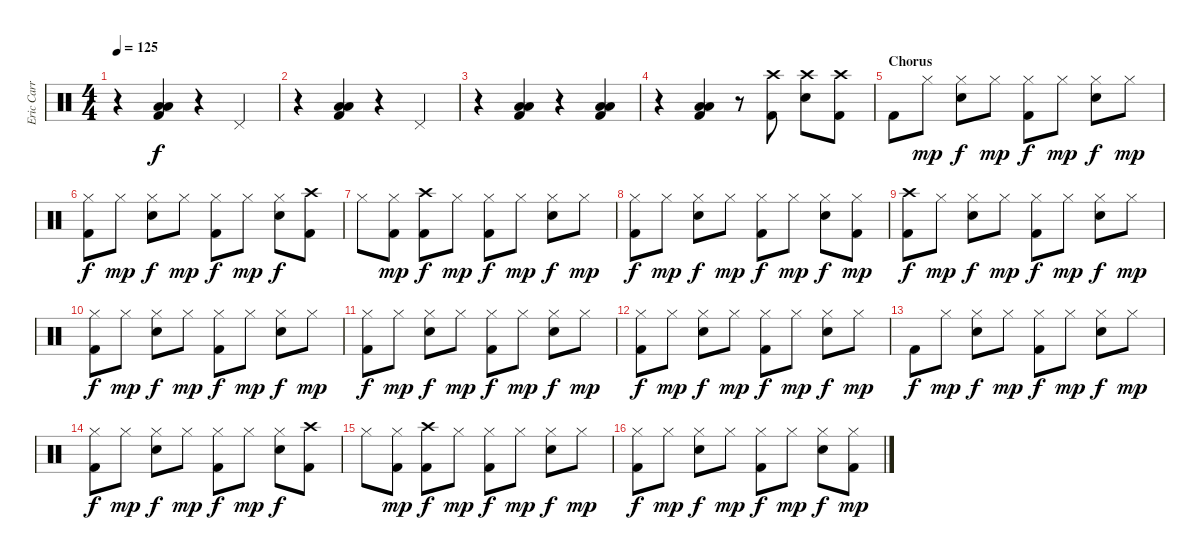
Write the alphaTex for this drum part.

\track ("Eric Carr" "Eric Carr") {instrument percussion}
\staff {score}
\articulation defaults
\ts (4 4)
\tempo 125
\clef neutral
\ks c
r.4{dy f} ("Low Floor Tom (hit)" "Low Floor Tom (hit)" "Kick (hit) 2").4 r.4 "Pedal Hi-Hat (hit)".4 |
r.4 ("Low Floor Tom (hit)" "Low Floor Tom (hit)" "Kick (hit) 2").4 r.4 "Pedal Hi-Hat (hit)".4 |
r.4 ("Low Floor Tom (hit)" "Low Floor Tom (hit)" "Kick (hit) 2").4 r.4 ("Low Floor Tom (hit)" "Low Floor Tom (hit)" "Kick (hit) 2").4 |
r.4 ("Low Floor Tom (hit)" "Low Floor Tom (hit)" "Kick (hit) 2").4 r.8 ("Crash high (hit)" "Kick (hit) 2").8 ("Crash high (hit)" "Snare (hit) 2").8 ("Crash high (hit)" "Kick (hit) 2").8 |
\section ("" "Chorus")
"Kick (hit) 2".8 "Hi-Hat (closed)".8{dy mp} ("Hi-Hat (closed)" "Snare (hit) 2").8{dy f} "Hi-Hat (closed)".8{dy mp} ("Hi-Hat (closed)" "Kick (hit) 2").8{dy f} "Hi-Hat (closed)".8{dy mp} ("Hi-Hat (closed)" "Snare (hit) 2").8{dy f} "Hi-Hat (closed)".8{dy mp} |
("Hi-Hat (closed)" "Kick (hit) 2").8{dy f} "Hi-Hat (closed)".8{dy mp} ("Hi-Hat (closed)" "Snare (hit) 2").8{dy f} "Hi-Hat (closed)".8{dy mp} ("Hi-Hat (closed)" "Kick (hit) 2").8{dy f} "Hi-Hat (closed)".8{dy mp} ("Hi-Hat (closed)" "Snare (hit) 2").8{dy f} ("Crash high (hit)" "Kick (hit) 2").8 |
"Hi-Hat (closed)".8 ("Hi-Hat (closed)" "Kick (hit) 2").8{dy mp} ("Crash high (hit)" "Kick (hit) 2").8{dy f} "Hi-Hat (closed)".8{dy mp} ("Hi-Hat (closed)" "Kick (hit) 2").8{dy f} "Hi-Hat (closed)".8{dy mp} ("Hi-Hat (closed)" "Snare (hit) 2").8{dy f} "Hi-Hat (closed)".8{dy mp} |
("Hi-Hat (closed)" "Kick (hit) 2").8{dy f} "Hi-Hat (closed)".8{dy mp} ("Hi-Hat (closed)" "Snare (hit) 2").8{dy f} "Hi-Hat (closed)".8{dy mp} ("Hi-Hat (closed)" "Kick (hit) 2").8{dy f} "Hi-Hat (closed)".8{dy mp} ("Hi-Hat (closed)" "Snare (hit) 2").8{dy f} ("Hi-Hat (closed)" "Kick (hit) 2").8{dy mp} |
("Crash high (hit)" "Kick (hit) 2").8{dy f} "Hi-Hat (closed)".8{dy mp} ("Hi-Hat (closed)" "Snare (hit) 2").8{dy f} "Hi-Hat (closed)".8{dy mp} ("Hi-Hat (closed)" "Kick (hit) 2").8{dy f} "Hi-Hat (closed)".8{dy mp} ("Hi-Hat (closed)" "Snare (hit) 2").8{dy f} "Hi-Hat (closed)".8{dy mp} |
("Hi-Hat (closed)" "Kick (hit) 2").8{dy f} "Hi-Hat (closed)".8{dy mp} ("Hi-Hat (closed)" "Snare (hit) 2").8{dy f} "Hi-Hat (closed)".8{dy mp} ("Hi-Hat (closed)" "Kick (hit) 2").8{dy f} "Hi-Hat (closed)".8{dy mp} ("Hi-Hat (closed)" "Snare (hit) 2").8{dy f} "Hi-Hat (closed)".8{dy mp} |
("Hi-Hat (closed)" "Kick (hit) 2").8{dy f} "Hi-Hat (closed)".8{dy mp} ("Hi-Hat (closed)" "Snare (hit) 2").8{dy f} "Hi-Hat (closed)".8{dy mp} ("Hi-Hat (closed)" "Kick (hit) 2").8{dy f} "Hi-Hat (closed)".8{dy mp} ("Hi-Hat (closed)" "Snare (hit) 2").8{dy f} "Hi-Hat (closed)".8{dy mp} |
("Hi-Hat (closed)" "Kick (hit) 2").8{dy f} "Hi-Hat (closed)".8{dy mp} ("Hi-Hat (closed)" "Snare (hit) 2").8{dy f} "Hi-Hat (closed)".8{dy mp} ("Hi-Hat (closed)" "Kick (hit) 2").8{dy f} "Hi-Hat (closed)".8{dy mp} ("Hi-Hat (closed)" "Snare (hit) 2").8{dy f} "Hi-Hat (closed)".8{dy mp} |
"Kick (hit) 2".8{dy f} "Hi-Hat (closed)".8{dy mp} ("Hi-Hat (closed)" "Snare (hit) 2").8{dy f} "Hi-Hat (closed)".8{dy mp} ("Hi-Hat (closed)" "Kick (hit) 2").8{dy f} "Hi-Hat (closed)".8{dy mp} ("Hi-Hat (closed)" "Snare (hit) 2").8{dy f} "Hi-Hat (closed)".8{dy mp} |
("Hi-Hat (closed)" "Kick (hit) 2").8{dy f} "Hi-Hat (closed)".8{dy mp} ("Hi-Hat (closed)" "Snare (hit) 2").8{dy f} "Hi-Hat (closed)".8{dy mp} ("Hi-Hat (closed)" "Kick (hit) 2").8{dy f} "Hi-Hat (closed)".8{dy mp} ("Hi-Hat (closed)" "Snare (hit) 2").8{dy f} ("Crash high (hit)" "Kick (hit) 2").8 |
"Hi-Hat (closed)".8 ("Hi-Hat (closed)" "Kick (hit) 2").8{dy mp} ("Crash high (hit)" "Kick (hit) 2").8{dy f} "Hi-Hat (closed)".8{dy mp} ("Hi-Hat (closed)" "Kick (hit) 2").8{dy f} "Hi-Hat (closed)".8{dy mp} ("Hi-Hat (closed)" "Snare (hit) 2").8{dy f} "Hi-Hat (closed)".8{dy mp} |
("Hi-Hat (closed)" "Kick (hit) 2").8{dy f} "Hi-Hat (closed)".8{dy mp} ("Hi-Hat (closed)" "Snare (hit) 2").8{dy f} "Hi-Hat (closed)".8{dy mp} ("Hi-Hat (closed)" "Kick (hit) 2").8{dy f} "Hi-Hat (closed)".8{dy mp} ("Hi-Hat (closed)" "Snare (hit) 2").8{dy f} ("Hi-Hat (closed)" "Kick (hit) 2").8{dy mp}
